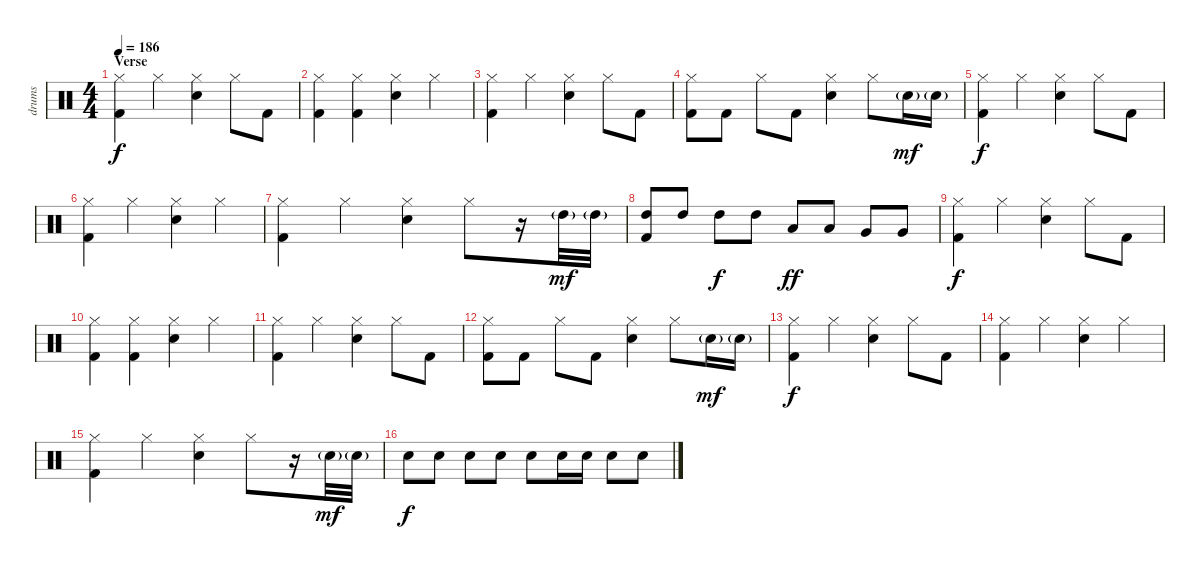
\track ("drums" "drums") {instrument percussion}
\staff {score}
\articulation defaults
\ts (4 4)
\section ("" "Verse")
\tempo 186
\clef neutral
\ks c
("Hi-Hat (closed)" "Kick (hit) 2").4{dy f} "Hi-Hat (closed)".4 ("Hi-Hat (closed)" "Electric Snare (hit)").4 "Hi-Hat (closed)".8 "Kick (hit) 2".8 |
("Hi-Hat (closed)" "Kick (hit) 2").4 ("Hi-Hat (closed)" "Kick (hit) 2").4 ("Hi-Hat (closed)" "Electric Snare (hit)").4 "Hi-Hat (closed)".4 |
("Hi-Hat (closed)" "Kick (hit) 2").4 "Hi-Hat (closed)".4 ("Hi-Hat (closed)" "Electric Snare (hit)").4 "Hi-Hat (closed)".8 "Kick (hit) 2".8 |
("Hi-Hat (closed)" "Kick (hit) 2").8 "Kick (hit) 2".8 "Hi-Hat (closed)".8 "Kick (hit) 2".8 ("Hi-Hat (closed)" "Electric Snare (hit)").4 "Hi-Hat (closed)".8 "Electric Snare (hit)"{g}.16{dy mf} "Electric Snare (hit)"{g}.16 |
("Hi-Hat (closed)" "Kick (hit) 2").4{dy f} "Hi-Hat (closed)".4 ("Hi-Hat (closed)" "Electric Snare (hit)").4 "Hi-Hat (closed)".8 "Kick (hit) 2".8 |
("Hi-Hat (closed)" "Kick (hit) 2").4 "Hi-Hat (closed)".4 ("Hi-Hat (closed)" "Electric Snare (hit)").4 "Hi-Hat (closed)".4 |
("Hi-Hat (closed)" "Kick (hit) 2").4 "Hi-Hat (closed)".4 ("Hi-Hat (closed)" "Electric Snare (hit)").4 "Hi-Hat (closed)".8 r.16 "High Tom (hit)"{g}.32{dy mf} "High Tom (hit)"{g}.32 |
("High Tom (hit)" "Kick (hit) 2").8 "High Tom (hit)".8 "High Tom (hit)".8{dy f} "High Tom (hit)".8 "Low Tom (hit)".8{dy ff} "Low Tom (hit)".8 "Very Low Tom (hit)".8 "Very Low Tom (hit)".8 |
("Hi-Hat (closed)" "Kick (hit) 2").4{dy f} "Hi-Hat (closed)".4 ("Hi-Hat (closed)" "Electric Snare (hit)").4 "Hi-Hat (closed)".8 "Kick (hit) 2".8 |
("Hi-Hat (closed)" "Kick (hit) 2").4 ("Hi-Hat (closed)" "Kick (hit) 2").4 ("Hi-Hat (closed)" "Electric Snare (hit)").4 "Hi-Hat (closed)".4 |
("Hi-Hat (closed)" "Kick (hit) 2").4 "Hi-Hat (closed)".4 ("Hi-Hat (closed)" "Electric Snare (hit)").4 "Hi-Hat (closed)".8 "Kick (hit) 2".8 |
("Hi-Hat (closed)" "Kick (hit) 2").8 "Kick (hit) 2".8 "Hi-Hat (closed)".8 "Kick (hit) 2".8 ("Hi-Hat (closed)" "Electric Snare (hit)").4 "Hi-Hat (closed)".8 "Electric Snare (hit)"{g}.16{dy mf} "Electric Snare (hit)"{g}.16 |
("Hi-Hat (closed)" "Kick (hit) 2").4{dy f} "Hi-Hat (closed)".4 ("Hi-Hat (closed)" "Electric Snare (hit)").4 "Hi-Hat (closed)".8 "Kick (hit) 2".8 |
("Hi-Hat (closed)" "Kick (hit) 2").4 "Hi-Hat (closed)".4 ("Hi-Hat (closed)" "Electric Snare (hit)").4 "Hi-Hat (closed)".4 |
("Hi-Hat (closed)" "Kick (hit) 2").4 "Hi-Hat (closed)".4 ("Hi-Hat (closed)" "Electric Snare (hit)").4 "Hi-Hat (closed)".8 r.16 "Electric Snare (hit)"{g}.32{dy mf} "Electric Snare (hit)"{g}.32 |
"Electric Snare (hit)".8{dy f} "Electric Snare (hit)".8 "Electric Snare (hit)".8 "Electric Snare (hit)".8 "Electric Snare (hit)".8 "Electric Snare (hit)".16 "Electric Snare (hit)".16 "Electric Snare (hit)".8 "Electric Snare (hit)".8
